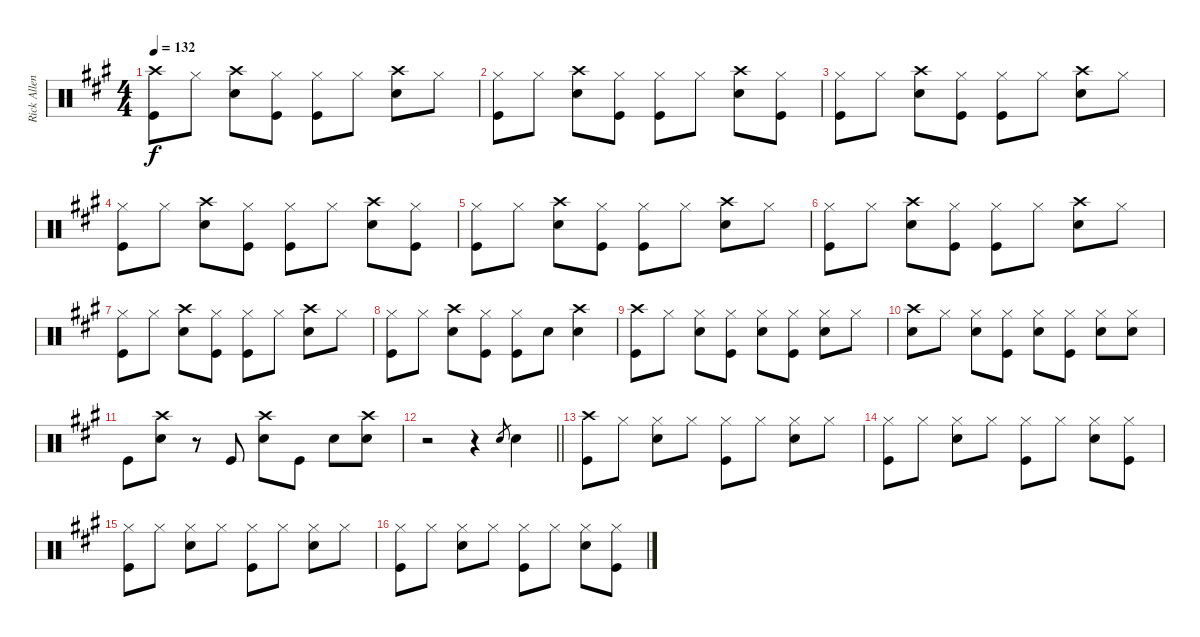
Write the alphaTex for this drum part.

\track ("Rick Allen" "Rick Allen") {instrument percussion}
\staff {score}
\articulation defaults
\ts (4 4)
\tempo 132
\clef neutral
\ks a
("Crash high (hit)" "Kick (hit)").8{dy f} "Hi-Hat (closed)".8 ("Crash high (hit)" "Snare (hit) 2").8 ("Hi-Hat (closed)" "Kick (hit)").8 ("Hi-Hat (closed)" "Kick (hit)").8 "Hi-Hat (closed)".8 ("Crash high (hit)" "Snare (hit) 2").8 "Hi-Hat (closed)".8 |
("Hi-Hat (closed)" "Kick (hit)").8 "Hi-Hat (closed)".8 ("Crash high (hit)" "Snare (hit) 2").8 ("Hi-Hat (closed)" "Kick (hit)").8 ("Hi-Hat (closed)" "Kick (hit)").8 "Hi-Hat (closed)".8 ("Crash high (hit)" "Snare (hit) 2").8 ("Hi-Hat (closed)" "Kick (hit)").8 |
("Hi-Hat (closed)" "Kick (hit)").8 "Hi-Hat (closed)".8 ("Crash high (hit)" "Snare (hit) 2").8 ("Hi-Hat (closed)" "Kick (hit)").8 ("Hi-Hat (closed)" "Kick (hit)").8 "Hi-Hat (closed)".8 ("Crash high (hit)" "Snare (hit) 2").8 "Hi-Hat (closed)".8 |
("Hi-Hat (closed)" "Kick (hit)").8 "Hi-Hat (closed)".8 ("Crash high (hit)" "Snare (hit) 2").8 ("Hi-Hat (closed)" "Kick (hit)").8 ("Hi-Hat (closed)" "Kick (hit)").8 "Hi-Hat (closed)".8 ("Crash high (hit)" "Snare (hit) 2").8 ("Hi-Hat (closed)" "Kick (hit)").8 |
("Hi-Hat (closed)" "Kick (hit)").8 "Hi-Hat (closed)".8 ("Crash high (hit)" "Snare (hit) 2").8 ("Hi-Hat (closed)" "Kick (hit)").8 ("Hi-Hat (closed)" "Kick (hit)").8 "Hi-Hat (closed)".8 ("Crash high (hit)" "Snare (hit) 2").8 "Hi-Hat (closed)".8 |
("Hi-Hat (closed)" "Kick (hit)").8 "Hi-Hat (closed)".8 ("Crash high (hit)" "Snare (hit) 2").8 ("Hi-Hat (closed)" "Kick (hit)").8 ("Hi-Hat (closed)" "Kick (hit)").8 "Hi-Hat (closed)".8 ("Crash high (hit)" "Snare (hit) 2").8 "Hi-Hat (closed)".8 |
("Hi-Hat (closed)" "Kick (hit)").8 "Hi-Hat (closed)".8 ("Crash high (hit)" "Snare (hit) 2").8 ("Hi-Hat (closed)" "Kick (hit)").8 ("Hi-Hat (closed)" "Kick (hit)").8 "Hi-Hat (closed)".8 ("Crash high (hit)" "Snare (hit) 2").8 "Hi-Hat (closed)".8 |
("Hi-Hat (closed)" "Kick (hit)").8 "Hi-Hat (closed)".8 ("Crash high (hit)" "Snare (hit) 2").8 ("Hi-Hat (closed)" "Kick (hit)").8 ("Hi-Hat (closed)" "Kick (hit)").8 "Snare (hit) 2".8 ("Crash high (hit)" "Snare (hit) 2").4 |
("Crash high (hit)" "Kick (hit)").8 "Hi-Hat (closed)".8 ("Hi-Hat (closed)" "Snare (hit) 2").8 ("Hi-Hat (closed)" "Kick (hit)").8 ("Hi-Hat (closed)" "Snare (hit) 2").8 ("Hi-Hat (closed)" "Kick (hit)").8 ("Hi-Hat (closed)" "Snare (hit) 2").8 "Hi-Hat (closed)".8 |
("Crash high (hit)" "Snare (hit) 2").8 "Hi-Hat (closed)".8 ("Hi-Hat (closed)" "Snare (hit) 2").8 ("Hi-Hat (closed)" "Kick (hit)").8 ("Hi-Hat (closed)" "Snare (hit) 2").8 ("Hi-Hat (closed)" "Kick (hit)").8 ("Hi-Hat (closed)" "Snare (hit) 2").8 ("Hi-Hat (closed)" "Snare (hit) 2").8 |
"Kick (hit)".8 ("Crash high (hit)" "Snare (hit) 2").8 r.8 "Kick (hit)".8 ("Crash high (hit)" "Snare (hit) 2").8 "Kick (hit)".8 "Snare (hit) 2".8 ("Crash high (hit)" "Snare (hit) 2").8 |
\barLineRight lightlight
r.2 r.4 "Snare (hit) 2".8{gr} "Snare (hit) 2".4 |
("Crash high (hit)" "Kick (hit)").8 "Hi-Hat (closed)".8 ("Hi-Hat (closed)" "Snare (hit) 2").8 "Hi-Hat (closed)".8 ("Hi-Hat (closed)" "Kick (hit)").8 "Hi-Hat (closed)".8 ("Hi-Hat (closed)" "Snare (hit) 2").8 "Hi-Hat (closed)".8 |
("Hi-Hat (closed)" "Kick (hit)").8 "Hi-Hat (closed)".8 ("Hi-Hat (closed)" "Snare (hit) 2").8 "Hi-Hat (closed)".8 ("Hi-Hat (closed)" "Kick (hit)").8 "Hi-Hat (closed)".8 ("Hi-Hat (closed)" "Snare (hit) 2").8 ("Hi-Hat (closed)" "Kick (hit)").8 |
("Hi-Hat (closed)" "Kick (hit)").8 "Hi-Hat (closed)".8 ("Hi-Hat (closed)" "Snare (hit) 2").8 "Hi-Hat (closed)".8 ("Hi-Hat (closed)" "Kick (hit)").8 "Hi-Hat (closed)".8 ("Hi-Hat (closed)" "Snare (hit) 2").8 "Hi-Hat (closed)".8 |
("Hi-Hat (closed)" "Kick (hit)").8 "Hi-Hat (closed)".8 ("Hi-Hat (closed)" "Snare (hit) 2").8 "Hi-Hat (closed)".8 ("Hi-Hat (closed)" "Kick (hit)").8 "Hi-Hat (closed)".8 ("Hi-Hat (closed)" "Snare (hit) 2").8 ("Hi-Hat (closed)" "Kick (hit)").8
